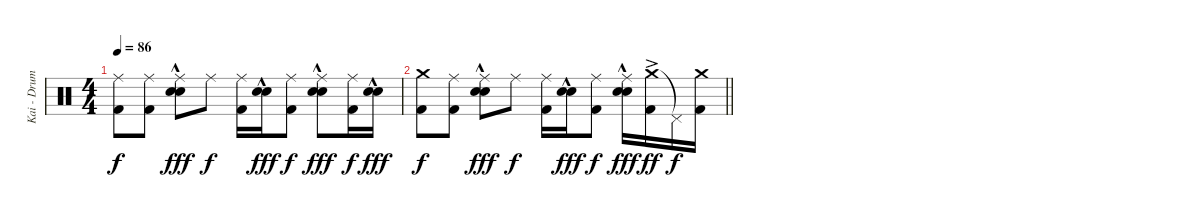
\track ("Kai - Drums" "Kai - Drum") {instrument percussion}
\staff {score}
\articulation defaults
\ts (4 4)
\tempo 86
\clef neutral
\ks c
("Ride (middle)" "Kick (hit) 2").8{dy f} ("Ride (middle)" "Kick (hit) 2").8 ("Ride (middle)" "Electric Snare (hit)"{hac} "Snare (hit) 2"{hac}).8{dy fff} "Ride (middle)".8{dy f} ("Ride (middle)" "Kick (hit) 2").16 ("Electric Snare (hit)"{hac} "Snare (hit) 2"{hac}).16{dy fff} ("Ride (middle)" "Kick (hit) 2").8{dy f} ("Ride (middle)" "Electric Snare (hit)"{hac} "Snare (hit) 2"{hac}).8{dy fff} ("Ride (middle)" "Kick (hit) 2").16{dy f} ("Electric Snare (hit)"{hac} "Snare (hit) 2"{hac}).16{dy fff} |
\barLineRight lightlight
("Crash medium (hit)" "Kick (hit) 2").8{dy f} ("Ride (middle)" "Kick (hit) 2").8 ("Ride (middle)" "Electric Snare (hit)"{hac} "Snare (hit) 2"{hac}).8{dy fff} "Ride (middle)".8{dy f} ("Ride (middle)" "Kick (hit) 2").16 ("Electric Snare (hit)"{hac} "Snare (hit) 2"{hac}).16{dy fff} ("Ride (middle)" "Kick (hit) 2").8{dy f} ("Ride (middle)" "Electric Snare (hit)"{hac} "Snare (hit) 2"{hac}).16{dy fff} ("Crash medium (hit)"{ac} "Kick (hit) 2").16{dy ff} "Pedal Hi-Hat (hit)"{t}.16{dy f} ("Crash medium (hit)" "Kick (hit) 2").16
